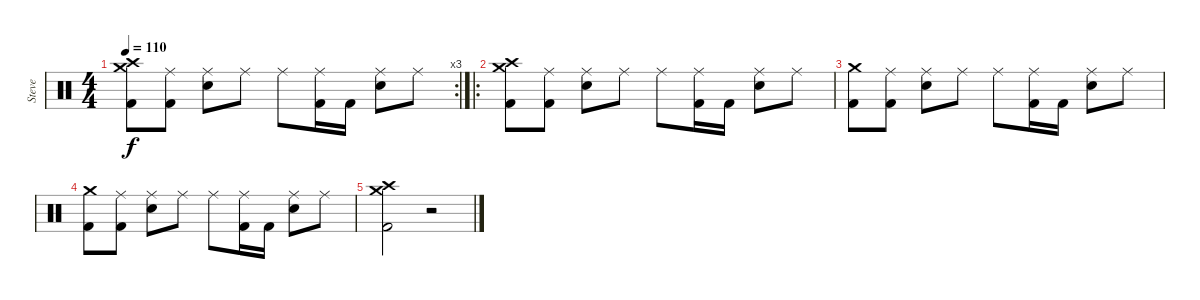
\track ("Steve " "Steve ") {instrument percussion}
\staff {score}
\articulation defaults
\rc 3
\ts (4 4)
\tempo 110
\clef neutral
\ks c
("Crash medium (hit)" "Crash high (hit)" "Kick (hit) 2").8{dy f} ("Ride (middle)" "Kick (hit) 2").8 ("Ride (middle)" "Electric Snare (hit)").8 "Ride (middle)".8 "Ride (middle)".8 ("Ride (middle)" "Kick (hit) 2").16 "Kick (hit) 2".16 ("Ride (middle)" "Electric Snare (hit)").8 "Ride (middle)".8 |
\ro
("Crash medium (hit)" "Crash high (hit)" "Kick (hit) 2").8 ("Ride (middle)" "Kick (hit) 2").8 ("Ride (middle)" "Electric Snare (hit)").8 "Ride (middle)".8 "Ride (middle)".8 ("Ride (middle)" "Kick (hit) 2").16 "Kick (hit) 2".16 ("Ride (middle)" "Electric Snare (hit)").8 "Ride (middle)".8 |
("Crash medium (hit)" "Kick (hit) 2").8 ("Ride (middle)" "Kick (hit) 2").8 ("Ride (middle)" "Electric Snare (hit)").8 "Ride (middle)".8 "Ride (middle)".8 ("Ride (middle)" "Kick (hit) 2").16 "Kick (hit) 2".16 ("Ride (middle)" "Electric Snare (hit)").8 "Ride (middle)".8 |
("Crash medium (hit)" "Kick (hit) 2").8 ("Ride (middle)" "Kick (hit) 2").8 ("Ride (middle)" "Electric Snare (hit)").8 "Ride (middle)".8 "Ride (middle)".8 ("Ride (middle)" "Kick (hit) 2").16 "Kick (hit) 2".16 ("Ride (middle)" "Electric Snare (hit)").8 "Ride (middle)".8 |
("Crash medium (hit)" "Crash high (hit)" "Kick (hit) 2").2 r.2
